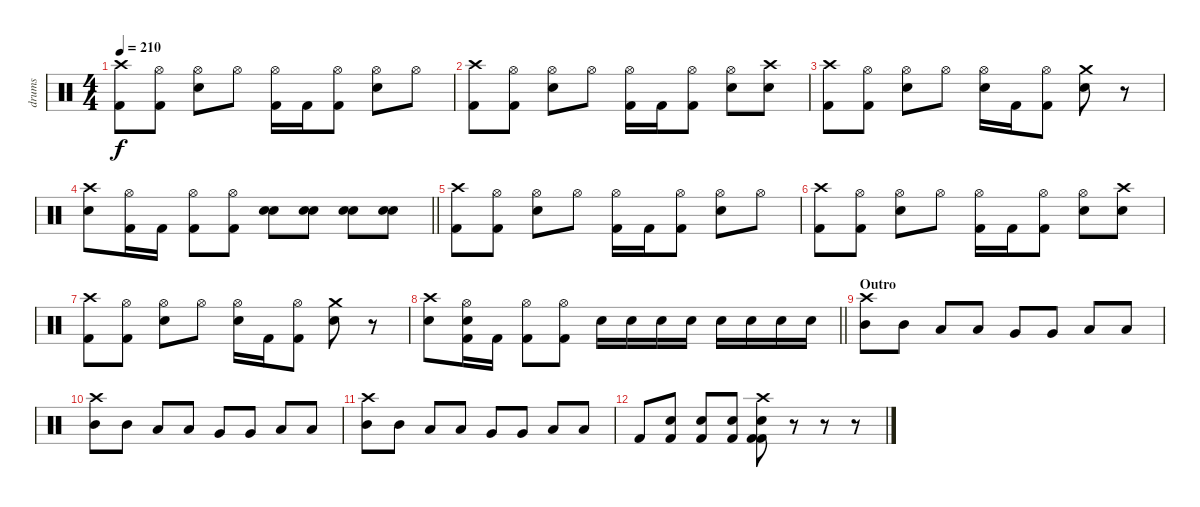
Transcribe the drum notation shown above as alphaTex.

\track ("drums" "drums") {instrument percussion}
\staff {score}
\articulation defaults
\ts (4 4)
\section ("" "")
\tempo 210
\clef neutral
\ks c
("Crash high (hit)" "Kick (hit) 2").8{dy f} ("Hi-Hat (open)" "Kick (hit) 2").8 ("Hi-Hat (open)" "Electric Snare (hit)").8 "Hi-Hat (open)".8 ("Hi-Hat (open)" "Kick (hit) 2").16 "Kick (hit) 2".16 ("Hi-Hat (open)" "Kick (hit) 2").8 ("Hi-Hat (open)" "Electric Snare (hit)").8 "Hi-Hat (open)".8 |
("Crash high (hit)" "Kick (hit) 2").8 ("Hi-Hat (open)" "Kick (hit) 2").8 ("Hi-Hat (open)" "Electric Snare (hit)").8 "Hi-Hat (open)".8 ("Hi-Hat (open)" "Kick (hit) 2").16 "Kick (hit) 2".16 ("Hi-Hat (open)" "Kick (hit) 2").8 ("Hi-Hat (open)" "Electric Snare (hit)").8 ("Crash high (hit)" "Electric Snare (hit)").8 |
("Crash high (hit)" "Kick (hit) 2").8 ("Hi-Hat (open)" "Kick (hit) 2").8 ("Hi-Hat (open)" "Electric Snare (hit)").8 "Hi-Hat (open)".8 ("Hi-Hat (open)" "Electric Snare (hit)").16 "Kick (hit) 2".16 ("Hi-Hat (open)" "Kick (hit) 2").8 ("Crash medium (hit)" "Electric Snare (hit)").8 r.8 |
\barLineRight lightlight
("Crash high (hit)" "Electric Snare (hit)").8 ("Hi-Hat (open)" "Kick (hit) 2").16 "Kick (hit) 2".16 ("Hi-Hat (open)" "Kick (hit) 2").8 ("Hi-Hat (open)" "Kick (hit) 2").8 ("Electric Snare (hit)" "Electric Snare (hit)").8 ("Electric Snare (hit)" "Electric Snare (hit)").8 ("Electric Snare (hit)" "Electric Snare (hit)").8 ("Electric Snare (hit)" "Electric Snare (hit)").8 |
("Crash high (hit)" "Kick (hit) 2").8 ("Hi-Hat (open)" "Kick (hit) 2").8 ("Hi-Hat (open)" "Electric Snare (hit)").8 "Hi-Hat (open)".8 ("Hi-Hat (open)" "Kick (hit) 2").16 "Kick (hit) 2".16 ("Hi-Hat (open)" "Kick (hit) 2").8 ("Hi-Hat (open)" "Electric Snare (hit)").8 "Hi-Hat (open)".8 |
("Crash high (hit)" "Kick (hit) 2").8 ("Hi-Hat (open)" "Kick (hit) 2").8 ("Hi-Hat (open)" "Electric Snare (hit)").8 "Hi-Hat (open)".8 ("Hi-Hat (open)" "Kick (hit) 2").16 "Kick (hit) 2".16 ("Hi-Hat (open)" "Kick (hit) 2").8 ("Hi-Hat (open)" "Electric Snare (hit)").8 ("Crash high (hit)" "Electric Snare (hit)").8 |
("Crash high (hit)" "Kick (hit) 2").8 ("Hi-Hat (open)" "Kick (hit) 2").8 ("Hi-Hat (open)" "Electric Snare (hit)").8 "Hi-Hat (open)".8 ("Hi-Hat (open)" "Electric Snare (hit)").16 "Kick (hit) 2".16 ("Hi-Hat (open)" "Kick (hit) 2").8 ("Crash medium (hit)" "Electric Snare (hit)").8 r.8 |
\barLineRight lightlight
("Crash high (hit)" "Electric Snare (hit)").8 ("Hi-Hat (open)" "Electric Snare (hit)" "Kick (hit) 2").16 "Kick (hit) 2".16 ("Hi-Hat (open)" "Kick (hit) 2").8 ("Hi-Hat (open)" "Kick (hit) 2").8 "Electric Snare (hit)".16 "Electric Snare (hit)".16 "Electric Snare (hit)".16 "Electric Snare (hit)".16 "Electric Snare (hit)".16 "Electric Snare (hit)".16 "Electric Snare (hit)".16 "Electric Snare (hit)".16 |
\section ("" "Outro")
("Crash high (hit)" "Mid Tom (hit)").8 "Mid Tom (hit)".8 "Low Tom (hit)".8 "Low Tom (hit)".8 "Very Low Tom (hit)".8 "Very Low Tom (hit)".8 "Low Floor Tom (hit)".8 "Low Floor Tom (hit)".8 |
("Crash high (hit)" "Mid Tom (hit)").8 "Mid Tom (hit)".8 "Low Tom (hit)".8 "Low Tom (hit)".8 "Very Low Tom (hit)".8 "Very Low Tom (hit)".8 "Low Floor Tom (hit)".8 "Low Floor Tom (hit)".8 |
("Crash high (hit)" "Mid Tom (hit)").8 "Mid Tom (hit)".8 "Low Tom (hit)".8 "Low Tom (hit)".8 "Very Low Tom (hit)".8 "Very Low Tom (hit)".8 "Low Floor Tom (hit)".8 "Low Floor Tom (hit)".8 |
"Kick (hit) 2".8 ("Electric Snare (hit)" "Kick (hit) 2").8 ("Electric Snare (hit)" "Kick (hit) 2").8 ("Electric Snare (hit)" "Kick (hit) 2").8 ("Crash high (hit)" "Electric Snare (hit)" "Kick (hit) 2" "Kick (hit) 2").8 r.8 r.8 r.8
